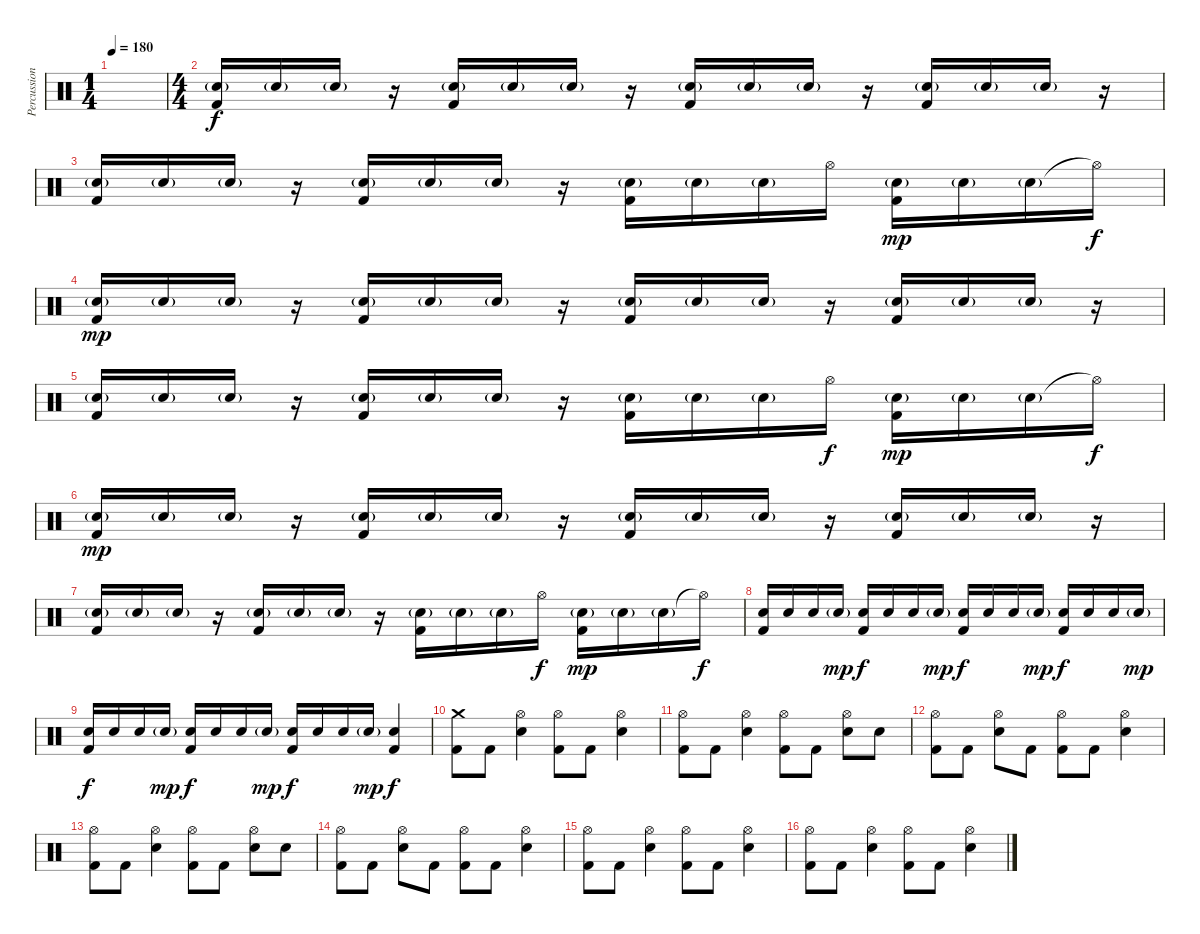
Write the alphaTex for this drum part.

\track ("Percussions" "Percussion") {instrument percussion}
\staff {score}
\articulation defaults
\ts (1 4)
\tempo 180
\clef neutral
\ks c
|
\ts (4 4)
("Snare (hit) 2"{g} "Kick (hit) 2").16 "Snare (hit) 2"{g}.16 "Snare (hit) 2"{g}.16 r.16 ("Snare (hit) 2"{g} "Kick (hit) 2").16 "Snare (hit) 2"{g}.16 "Snare (hit) 2"{g}.16 r.16 ("Snare (hit) 2"{g} "Kick (hit) 2").16 "Snare (hit) 2"{g}.16 "Snare (hit) 2"{g}.16 r.16 ("Snare (hit) 2"{g} "Kick (hit) 2").16 "Snare (hit) 2"{g}.16 "Snare (hit) 2"{g}.16 r.16 |
("Snare (hit) 2"{g} "Kick (hit) 2").16 "Snare (hit) 2"{g}.16 "Snare (hit) 2"{g}.16 r.16 ("Snare (hit) 2"{g} "Kick (hit) 2").16 "Snare (hit) 2"{g}.16 "Snare (hit) 2"{g}.16 r.16 ("Snare (hit) 2"{g} "Kick (hit) 2").16 "Snare (hit) 2"{g}.16 "Snare (hit) 2"{g}.16 "Hi-Hat (open)".16{dy f} ("Snare (hit) 2"{g} "Kick (hit) 2").16{dy mp} "Snare (hit) 2"{g}.16 "Snare (hit) 2"{g}.16 "Hi-Hat (open)"{t}.16{dy f} |
("Snare (hit) 2"{g} "Kick (hit) 2").16{dy mp} "Snare (hit) 2"{g}.16 "Snare (hit) 2"{g}.16 r.16 ("Snare (hit) 2"{g} "Kick (hit) 2").16 "Snare (hit) 2"{g}.16 "Snare (hit) 2"{g}.16 r.16 ("Snare (hit) 2"{g} "Kick (hit) 2").16 "Snare (hit) 2"{g}.16 "Snare (hit) 2"{g}.16 r.16 ("Snare (hit) 2"{g} "Kick (hit) 2").16 "Snare (hit) 2"{g}.16 "Snare (hit) 2"{g}.16 r.16 |
("Snare (hit) 2"{g} "Kick (hit) 2").16 "Snare (hit) 2"{g}.16 "Snare (hit) 2"{g}.16 r.16 ("Snare (hit) 2"{g} "Kick (hit) 2").16 "Snare (hit) 2"{g}.16 "Snare (hit) 2"{g}.16 r.16 ("Snare (hit) 2"{g} "Kick (hit) 2").16 "Snare (hit) 2"{g}.16 "Snare (hit) 2"{g}.16 "Hi-Hat (open)".16{dy f} ("Snare (hit) 2"{g} "Kick (hit) 2").16{dy mp} "Snare (hit) 2"{g}.16 "Snare (hit) 2"{g}.16 "Hi-Hat (open)"{t}.16{dy f} |
("Snare (hit) 2"{g} "Kick (hit) 2").16{dy mp} "Snare (hit) 2"{g}.16 "Snare (hit) 2"{g}.16 r.16 ("Snare (hit) 2"{g} "Kick (hit) 2").16 "Snare (hit) 2"{g}.16 "Snare (hit) 2"{g}.16 r.16 ("Snare (hit) 2"{g} "Kick (hit) 2").16 "Snare (hit) 2"{g}.16 "Snare (hit) 2"{g}.16 r.16 ("Snare (hit) 2"{g} "Kick (hit) 2").16 "Snare (hit) 2"{g}.16 "Snare (hit) 2"{g}.16 r.16 |
("Snare (hit) 2"{g} "Kick (hit) 2").16 "Snare (hit) 2"{g}.16 "Snare (hit) 2"{g}.16 r.16 ("Snare (hit) 2"{g} "Kick (hit) 2").16 "Snare (hit) 2"{g}.16 "Snare (hit) 2"{g}.16 r.16 ("Snare (hit) 2"{g} "Kick (hit) 2").16 "Snare (hit) 2"{g}.16 "Snare (hit) 2"{g}.16 "Hi-Hat (open)".16{dy f} ("Snare (hit) 2"{g} "Kick (hit) 2").16{dy mp} "Snare (hit) 2"{g}.16 "Snare (hit) 2"{g}.16 "Hi-Hat (open)"{t}.16{dy f} |
("Snare (hit) 2" "Kick (hit) 2").16 "Snare (hit) 2".16 "Snare (hit) 2".16 "Snare (hit) 2"{g}.16{dy mp} ("Snare (hit) 2" "Kick (hit) 2").16{dy f} "Snare (hit) 2".16 "Snare (hit) 2".16 "Snare (hit) 2"{g}.16{dy mp} ("Snare (hit) 2" "Kick (hit) 2").16{dy f} "Snare (hit) 2".16 "Snare (hit) 2".16 "Snare (hit) 2"{g}.16{dy mp} ("Snare (hit) 2" "Kick (hit) 2").16{dy f} "Snare (hit) 2".16 "Snare (hit) 2".16 "Snare (hit) 2"{g}.16{dy mp} |
("Snare (hit) 2" "Kick (hit) 2").16{dy f} "Snare (hit) 2".16 "Snare (hit) 2".16 "Snare (hit) 2"{g}.16{dy mp} ("Snare (hit) 2" "Kick (hit) 2").16{dy f} "Snare (hit) 2".16 "Snare (hit) 2".16 "Snare (hit) 2"{g}.16{dy mp} ("Snare (hit) 2" "Kick (hit) 2").16{dy f} "Snare (hit) 2".16 "Snare (hit) 2".16 "Snare (hit) 2"{g}.16{dy mp} ("Snare (hit) 2" "Kick (hit) 2").4{dy f} |
("Crash medium (hit)" "Kick (hit) 2").8 "Kick (hit) 2".8 ("Electric Snare (hit)" "Hi-Hat (open)").4 ("Hi-Hat (open)" "Kick (hit) 2").8 "Kick (hit) 2".8 ("Electric Snare (hit)" "Hi-Hat (open)").4 |
("Hi-Hat (open)" "Kick (hit) 2").8 "Kick (hit) 2".8 ("Electric Snare (hit)" "Hi-Hat (open)").4 ("Hi-Hat (open)" "Kick (hit) 2").8 "Kick (hit) 2".8 ("Electric Snare (hit)" "Hi-Hat (open)").8 "Electric Snare (hit)".8 |
("Hi-Hat (open)" "Kick (hit) 2").8 "Kick (hit) 2".8 ("Electric Snare (hit)" "Hi-Hat (open)").8 "Kick (hit) 2".8 ("Hi-Hat (open)" "Kick (hit) 2").8 "Kick (hit) 2".8 ("Electric Snare (hit)" "Hi-Hat (open)").4 |
("Hi-Hat (open)" "Kick (hit) 2").8 "Kick (hit) 2".8 ("Electric Snare (hit)" "Hi-Hat (open)").4 ("Hi-Hat (open)" "Kick (hit) 2").8 "Kick (hit) 2".8 ("Electric Snare (hit)" "Hi-Hat (open)").8 "Electric Snare (hit)".8 |
("Hi-Hat (open)" "Kick (hit) 2").8 "Kick (hit) 2".8 ("Electric Snare (hit)" "Hi-Hat (open)").8 "Kick (hit) 2".8 ("Hi-Hat (open)" "Kick (hit) 2").8 "Kick (hit) 2".8 ("Electric Snare (hit)" "Hi-Hat (open)").4 |
("Hi-Hat (open)" "Kick (hit) 2").8 "Kick (hit) 2".8 ("Electric Snare (hit)" "Hi-Hat (open)").4 ("Hi-Hat (open)" "Kick (hit) 2").8 "Kick (hit) 2".8 ("Electric Snare (hit)" "Hi-Hat (open)").4 |
("Hi-Hat (open)" "Kick (hit) 2").8 "Kick (hit) 2".8 ("Electric Snare (hit)" "Hi-Hat (open)").4 ("Hi-Hat (open)" "Kick (hit) 2").8 "Kick (hit) 2".8 ("Electric Snare (hit)" "Hi-Hat (open)").4
